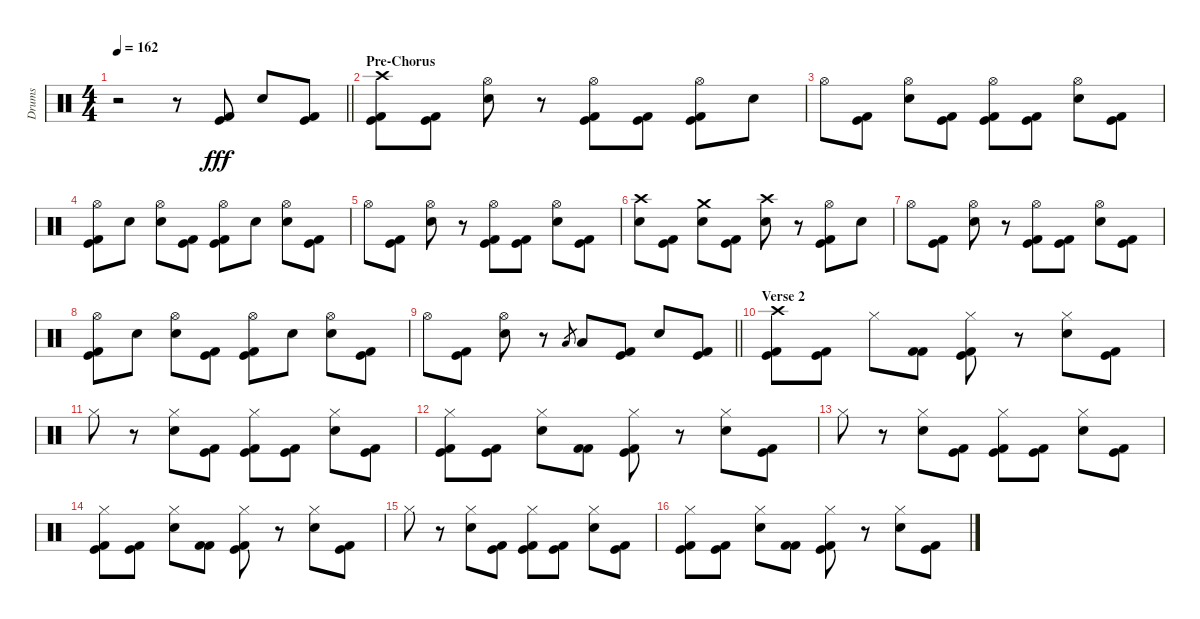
\track ("Drums" "Drums") {instrument percussion}
\staff {score}
\articulation defaults
\ts (4 4)
\tempo 162
\clef neutral
\barLineRight lightlight
\ks aminor
r.2{dy fff} r.8 ("Kick (hit)" "Kick (hit) 2").8 "Electric Snare (hit)".8 ("Kick (hit)" "Kick (hit) 2").8 |
\section ("" "Pre-Chorus")
\ks c
("Crash high (hit)" "Kick (hit)" "Kick (hit) 2").8 ("Kick (hit)" "Kick (hit) 2").8 ("Hi-Hat (open)" "Electric Snare (hit)").8 r.8 ("Hi-Hat (open)" "Kick (hit)" "Kick (hit) 2").8 ("Kick (hit)" "Kick (hit) 2").8 ("Hi-Hat (open)" "Kick (hit)" "Kick (hit) 2").8 "Electric Snare (hit)".8 |
"Hi-Hat (open)".8 ("Kick (hit)" "Kick (hit) 2").8 ("Hi-Hat (open)" "Electric Snare (hit)").8 ("Kick (hit)" "Kick (hit) 2").8 ("Hi-Hat (open)" "Kick (hit)" "Kick (hit) 2").8 ("Kick (hit)" "Kick (hit) 2").8 ("Hi-Hat (open)" "Electric Snare (hit)").8 ("Kick (hit)" "Kick (hit) 2").8 |
("Hi-Hat (open)" "Kick (hit)" "Kick (hit) 2").8 "Electric Snare (hit)".8 ("Hi-Hat (open)" "Electric Snare (hit)").8 ("Kick (hit)" "Kick (hit) 2").8 ("Hi-Hat (open)" "Kick (hit)" "Kick (hit) 2").8 "Electric Snare (hit)".8 ("Hi-Hat (open)" "Electric Snare (hit)").8 ("Kick (hit)" "Kick (hit) 2").8 |
"Hi-Hat (open)".8 ("Kick (hit)" "Kick (hit) 2").8 ("Hi-Hat (open)" "Electric Snare (hit)").8 r.8 ("Hi-Hat (open)" "Kick (hit)" "Kick (hit) 2").8 ("Kick (hit)" "Kick (hit) 2").8 ("Hi-Hat (open)" "Electric Snare (hit)").8 ("Kick (hit)" "Kick (hit) 2").8 |
("Crash high (hit)" "Electric Snare (hit)").8 ("Kick (hit)" "Kick (hit) 2").8 ("Crash medium (hit)" "Electric Snare (hit)").8 ("Kick (hit)" "Kick (hit) 2").8 ("Crash high (hit)" "Electric Snare (hit)").8 r.8 ("Hi-Hat (open)" "Kick (hit)" "Kick (hit) 2").8 "Electric Snare (hit)".8 |
"Hi-Hat (open)".8 ("Kick (hit)" "Kick (hit) 2").8 ("Hi-Hat (open)" "Electric Snare (hit)").8 r.8 ("Hi-Hat (open)" "Kick (hit)" "Kick (hit) 2").8 ("Kick (hit)" "Kick (hit) 2").8 ("Hi-Hat (open)" "Electric Snare (hit)").8 ("Kick (hit)" "Kick (hit) 2").8 |
("Hi-Hat (open)" "Kick (hit)" "Kick (hit) 2").8 "Electric Snare (hit)".8 ("Hi-Hat (open)" "Electric Snare (hit)").8 ("Kick (hit)" "Kick (hit) 2").8 ("Hi-Hat (open)" "Kick (hit)" "Kick (hit) 2").8 "Electric Snare (hit)".8 ("Hi-Hat (open)" "Electric Snare (hit)").8 ("Kick (hit)" "Kick (hit) 2").8 |
\barLineRight lightlight "Hi-Hat (open)".8
("Kick (hit)" "Kick (hit) 2").8 ("Hi-Hat (open)" "Electric Snare (hit)").8 r.8 "Low Floor Tom (hit)".8{gr} "Low Floor Tom (hit)".8 ("Kick (hit)" "Kick (hit) 2").8 "Electric Snare (hit)".8 ("Kick (hit)" "Kick (hit) 2").8 |
\section ("" "Verse 2")
\ks aminor
("Crash high (hit)" "Kick (hit)" "Kick (hit) 2").8 ("Kick (hit)" "Kick (hit) 2").8 "Hi-Hat (closed)".8 ("Kick (hit) 2" "Kick (hit) 2").8 ("Hi-Hat (closed)" "Kick (hit)" "Kick (hit) 2").8 r.8 ("Hi-Hat (closed)" "Electric Snare (hit)").8 ("Kick (hit)" "Kick (hit) 2").8 |
"Hi-Hat (closed)".8 r.8 ("Hi-Hat (closed)" "Electric Snare (hit)").8 ("Kick (hit)" "Kick (hit) 2").8 ("Hi-Hat (closed)" "Kick (hit)" "Kick (hit) 2").8 ("Kick (hit)" "Kick (hit) 2").8 ("Hi-Hat (closed)" "Electric Snare (hit)").8 ("Kick (hit)" "Kick (hit) 2").8 |
("Hi-Hat (closed)" "Kick (hit)" "Kick (hit) 2").8 ("Kick (hit)" "Kick (hit) 2").8 ("Hi-Hat (closed)" "Electric Snare (hit)").8 ("Kick (hit) 2" "Kick (hit) 2").8 ("Hi-Hat (closed)" "Kick (hit)" "Kick (hit) 2").8 r.8 ("Hi-Hat (closed)" "Electric Snare (hit)").8 ("Kick (hit)" "Kick (hit) 2").8 |
"Hi-Hat (closed)".8 r.8 ("Hi-Hat (closed)" "Electric Snare (hit)").8 ("Kick (hit)" "Kick (hit) 2").8 ("Hi-Hat (closed)" "Kick (hit)" "Kick (hit) 2").8 ("Kick (hit)" "Kick (hit) 2").8 ("Hi-Hat (closed)" "Electric Snare (hit)").8 ("Kick (hit)" "Kick (hit) 2").8 |
("Hi-Hat (closed)" "Kick (hit)" "Kick (hit) 2").8 ("Kick (hit)" "Kick (hit) 2").8 ("Hi-Hat (closed)" "Electric Snare (hit)").8 ("Kick (hit) 2" "Kick (hit) 2").8 ("Hi-Hat (closed)" "Kick (hit)" "Kick (hit) 2").8 r.8 ("Hi-Hat (closed)" "Electric Snare (hit)").8 ("Kick (hit)" "Kick (hit) 2").8 |
"Hi-Hat (closed)".8 r.8 ("Hi-Hat (closed)" "Electric Snare (hit)").8 ("Kick (hit)" "Kick (hit) 2").8 ("Hi-Hat (closed)" "Kick (hit)" "Kick (hit) 2").8 ("Kick (hit)" "Kick (hit) 2").8 ("Hi-Hat (closed)" "Electric Snare (hit)").8 ("Kick (hit)" "Kick (hit) 2").8 |
("Hi-Hat (closed)" "Kick (hit)" "Kick (hit) 2").8 ("Kick (hit)" "Kick (hit) 2").8 ("Hi-Hat (closed)" "Electric Snare (hit)").8 ("Kick (hit) 2" "Kick (hit) 2").8 ("Hi-Hat (closed)" "Kick (hit)" "Kick (hit) 2").8 r.8 ("Hi-Hat (closed)" "Electric Snare (hit)").8 ("Kick (hit)" "Kick (hit) 2").8
